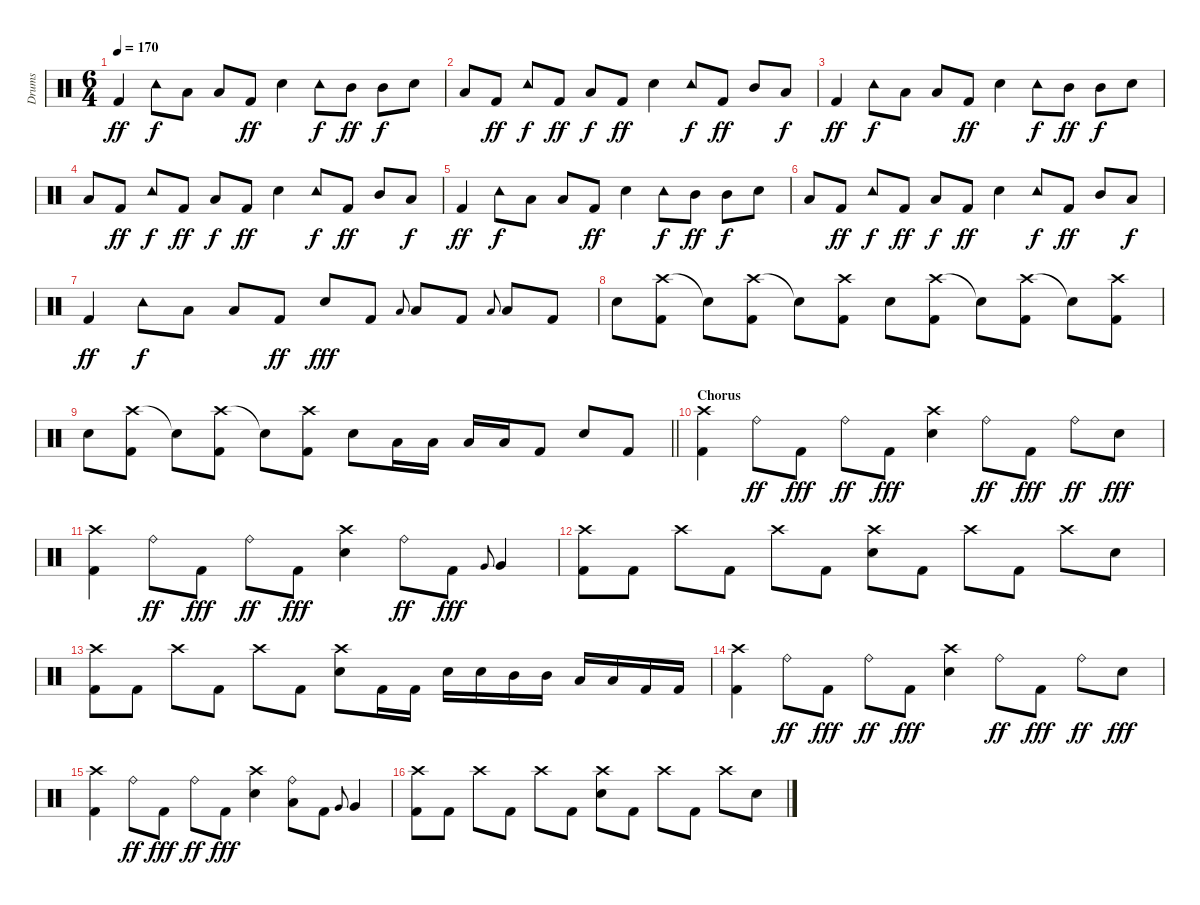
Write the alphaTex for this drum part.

\track ("Drums" "Drums") {instrument percussion}
\staff {score}
\articulation defaults
\ts (6 4)
\tempo 170
\clef neutral
\ks c "Kick (hit) 2".4{dy ff} "Tambourine (hit)".8{dy f} "Low Tom (hit)".8 "Low Tom (hit)".8 "Kick (hit) 2".8{dy ff} "Snare (hit) 2".4 "Tambourine (hit)".8{dy f} "Mid Tom (hit)".8{dy ff} "Mid Tom (hit)".8{dy f} "Snare (hit) 2".8
|
"Low Tom (hit)".8 "Kick (hit) 2".8{dy ff} "Tambourine (hit)".8{dy f} "Kick (hit) 2".8{dy ff} "Low Tom (hit)".8{dy f} "Kick (hit) 2".8{dy ff} "Snare (hit) 2".4 "Tambourine (hit)".8{dy f} "Kick (hit) 2".8{dy ff} "Mid Tom (hit)".8 "Low Tom (hit)".8{dy f} |
"Kick (hit) 2".4{dy ff} "Tambourine (hit)".8{dy f} "Low Tom (hit)".8 "Low Tom (hit)".8 "Kick (hit) 2".8{dy ff} "Snare (hit) 2".4 "Tambourine (hit)".8{dy f} "Mid Tom (hit)".8{dy ff} "Mid Tom (hit)".8{dy f} "Snare (hit) 2".8 |
"Low Tom (hit)".8 "Kick (hit) 2".8{dy ff} "Tambourine (hit)".8{dy f} "Kick (hit) 2".8{dy ff} "Low Tom (hit)".8{dy f} "Kick (hit) 2".8{dy ff} "Snare (hit) 2".4 "Tambourine (hit)".8{dy f} "Kick (hit) 2".8{dy ff} "Mid Tom (hit)".8 "Low Tom (hit)".8{dy f} |
"Kick (hit) 2".4{dy ff} "Tambourine (hit)".8{dy f} "Low Tom (hit)".8 "Low Tom (hit)".8 "Kick (hit) 2".8{dy ff} "Snare (hit) 2".4 "Tambourine (hit)".8{dy f} "Mid Tom (hit)".8{dy ff} "Mid Tom (hit)".8{dy f} "Snare (hit) 2".8 |
"Low Tom (hit)".8 "Kick (hit) 2".8{dy ff} "Tambourine (hit)".8{dy f} "Kick (hit) 2".8{dy ff} "Low Tom (hit)".8{dy f} "Kick (hit) 2".8{dy ff} "Snare (hit) 2".4 "Tambourine (hit)".8{dy f} "Kick (hit) 2".8{dy ff} "Mid Tom (hit)".8 "Low Tom (hit)".8{dy f} |
"Kick (hit) 2".4{dy ff} "Tambourine (hit)".8{dy f} "Low Tom (hit)".8 "Low Tom (hit)".8 "Kick (hit) 2".8{dy ff} "Snare (hit) 2".8{dy fff} "Kick (hit) 2".8 "Low Tom (hit)".8{gr onbeat} "Low Tom (hit)".8 "Kick (hit) 2".8 "Low Tom (hit)".8{gr onbeat} "Low Tom (hit)".8 "Kick (hit) 2".8 |
"Snare (hit) 2".8 ("Crash high (hit)" "Kick (hit) 2").8 "Snare (hit)"{t}.8 ("Crash high (hit)" "Kick (hit) 2").8 "Snare (hit)"{t}.8 ("Crash high (hit)" "Kick (hit) 2").8 "Snare (hit) 2".8 ("Crash high (hit)" "Kick (hit) 2").8 "Snare (hit)"{t}.8 ("Crash high (hit)" "Kick (hit) 2").8 "Snare (hit)"{t}.8 ("Crash high (hit)" "Kick (hit) 2").8 |
\barLineRight lightlight "Snare (hit) 2".8
("Crash high (hit)" "Kick (hit) 2").8 "Snare (hit)"{t}.8 ("Crash high (hit)" "Kick (hit) 2").8 "Snare (hit)"{t}.8 ("Crash high (hit)" "Kick (hit) 2").8 "Snare (hit) 2".8 "Low Tom (hit)".16 "Low Tom (hit)".16 "Low Tom (hit)".16 "Low Tom (hit)".16 "Kick (hit) 2".8 "Snare (hit) 2".8 "Kick (hit) 2".8 |
\section ("" "Chorus")
("Crash high (hit)" "Kick (hit) 2").4 "Ride (bell)".8{dy ff} "Kick (hit) 2".8{dy fff} "Ride (bell)".8{dy ff} "Kick (hit) 2".8{dy fff} ("Crash high (hit)" "Snare (hit) 2").4 "Ride (bell)".8{dy ff} "Kick (hit) 2".8{dy fff} "Ride (bell)".8{dy ff} "Snare (hit) 2".8{dy fff} |
("Crash high (hit)" "Kick (hit) 2").4 "Ride (bell)".8{dy ff} "Kick (hit) 2".8{dy fff} "Ride (bell)".8{dy ff} "Kick (hit) 2".8{dy fff} ("Crash high (hit)" "Snare (hit) 2").4 "Ride (bell)".8{dy ff} "Kick (hit) 2".8{dy fff} "Very Low Tom (hit)".8{gr onbeat} "Very Low Tom (hit)".4 |
("Crash high (hit)" "Kick (hit) 2").8 "Kick (hit) 2".8 "Crash high (hit)".8 "Kick (hit) 2".8 "Crash high (hit)".8 "Kick (hit) 2".8 ("Crash high (hit)" "Snare (hit) 2").8 "Kick (hit) 2".8 "Crash high (hit)".8 "Kick (hit) 2".8 "Crash high (hit)".8 "Snare (hit) 2".8 |
("Crash high (hit)" "Kick (hit) 2").8 "Kick (hit) 2".8 "Crash high (hit)".8 "Kick (hit) 2".8 "Crash high (hit)".8 "Kick (hit) 2".8 ("Crash high (hit)" "Snare (hit) 2").8 "Kick (hit) 2".16 "Kick (hit) 2".16 "Snare (hit) 2".16 "Snare (hit) 2".16 "Mid Tom (hit)".16 "Mid Tom (hit)".16 "Low Tom (hit)".16 "Low Tom (hit)".16 "Kick (hit) 2".16 "Kick (hit) 2".16 |
("Crash high (hit)" "Kick (hit) 2").4 "Ride (bell)".8{dy ff} "Kick (hit) 2".8{dy fff} "Ride (bell)".8{dy ff} "Kick (hit) 2".8{dy fff} ("Crash high (hit)" "Snare (hit) 2").4 "Ride (bell)".8{dy ff} "Kick (hit) 2".8{dy fff} "Ride (bell)".8{dy ff} "Snare (hit) 2".8{dy fff} |
("Crash high (hit)" "Kick (hit) 2").4 "Ride (bell)".8{dy ff} "Kick (hit) 2".8{dy fff} "Ride (bell)".8{dy ff} "Kick (hit) 2".8{dy fff} ("Crash high (hit)" "Snare (hit) 2").4 ("Ride (bell)" "Low Tom (hit)").8 "Kick (hit) 2".8 "Very Low Tom (hit)".8{gr onbeat} "Very Low Tom (hit)".4 |
("Crash high (hit)" "Kick (hit) 2").8 "Kick (hit) 2".8 "Crash high (hit)".8 "Kick (hit) 2".8 "Crash high (hit)".8 "Kick (hit) 2".8 ("Crash high (hit)" "Snare (hit) 2").8 "Kick (hit) 2".8 "Crash high (hit)".8 "Kick (hit) 2".8 "Crash high (hit)".8 "Snare (hit) 2".8
